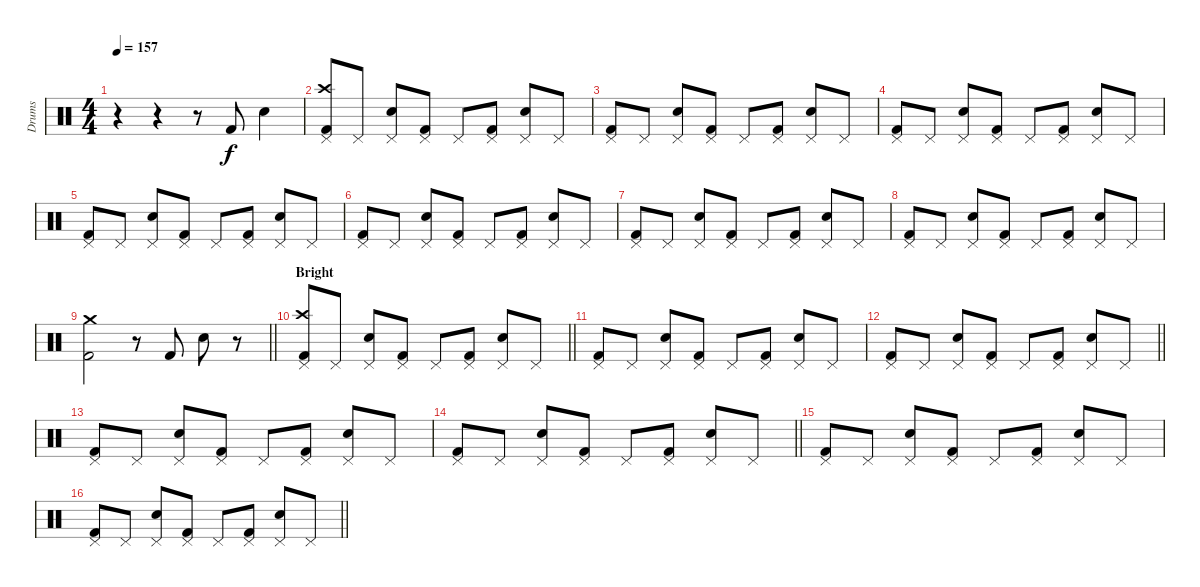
\track ("Drums" "Drums") {instrument percussion}
\staff {score}
\articulation defaults
\ts (4 4)
\tempo 157
\clef neutral
\ks c
r.4{dy f} r.4 r.8 "Kick (hit) 2".8 "Snare (hit) 2".4 |
("Crash high (hit)" "Pedal Hi-Hat (hit)" "Kick (hit) 2").8 "Pedal Hi-Hat (hit)".8 ("Pedal Hi-Hat (hit)" "Snare (hit) 2").8 ("Pedal Hi-Hat (hit)" "Kick (hit) 2").8 "Pedal Hi-Hat (hit)".8 ("Pedal Hi-Hat (hit)" "Kick (hit) 2").8 ("Pedal Hi-Hat (hit)" "Snare (hit) 2").8 "Pedal Hi-Hat (hit)".8 |
("Pedal Hi-Hat (hit)" "Kick (hit) 2").8 "Pedal Hi-Hat (hit)".8 ("Pedal Hi-Hat (hit)" "Snare (hit) 2").8 ("Pedal Hi-Hat (hit)" "Kick (hit) 2").8 "Pedal Hi-Hat (hit)".8 ("Pedal Hi-Hat (hit)" "Kick (hit) 2").8 ("Pedal Hi-Hat (hit)" "Snare (hit) 2").8 "Pedal Hi-Hat (hit)".8 |
("Pedal Hi-Hat (hit)" "Kick (hit) 2").8 "Pedal Hi-Hat (hit)".8 ("Pedal Hi-Hat (hit)" "Snare (hit) 2").8 ("Pedal Hi-Hat (hit)" "Kick (hit) 2").8 "Pedal Hi-Hat (hit)".8 ("Pedal Hi-Hat (hit)" "Kick (hit) 2").8 ("Pedal Hi-Hat (hit)" "Snare (hit) 2").8 "Pedal Hi-Hat (hit)".8 |
("Pedal Hi-Hat (hit)" "Kick (hit) 2").8 "Pedal Hi-Hat (hit)".8 ("Pedal Hi-Hat (hit)" "Snare (hit) 2").8 ("Pedal Hi-Hat (hit)" "Kick (hit) 2").8 "Pedal Hi-Hat (hit)".8 ("Pedal Hi-Hat (hit)" "Kick (hit) 2").8 ("Pedal Hi-Hat (hit)" "Snare (hit) 2").8 "Pedal Hi-Hat (hit)".8 |
("Pedal Hi-Hat (hit)" "Kick (hit) 2").8 "Pedal Hi-Hat (hit)".8 ("Pedal Hi-Hat (hit)" "Snare (hit) 2").8 ("Pedal Hi-Hat (hit)" "Kick (hit) 2").8 "Pedal Hi-Hat (hit)".8 ("Pedal Hi-Hat (hit)" "Kick (hit) 2").8 ("Pedal Hi-Hat (hit)" "Snare (hit) 2").8 "Pedal Hi-Hat (hit)".8 |
("Pedal Hi-Hat (hit)" "Kick (hit) 2").8 "Pedal Hi-Hat (hit)".8 ("Pedal Hi-Hat (hit)" "Snare (hit) 2").8 ("Pedal Hi-Hat (hit)" "Kick (hit) 2").8 "Pedal Hi-Hat (hit)".8 ("Pedal Hi-Hat (hit)" "Kick (hit) 2").8 ("Pedal Hi-Hat (hit)" "Snare (hit) 2").8 "Pedal Hi-Hat (hit)".8 |
("Pedal Hi-Hat (hit)" "Kick (hit) 2").8 "Pedal Hi-Hat (hit)".8 ("Pedal Hi-Hat (hit)" "Snare (hit) 2").8 ("Pedal Hi-Hat (hit)" "Kick (hit) 2").8 "Pedal Hi-Hat (hit)".8 ("Pedal Hi-Hat (hit)" "Kick (hit) 2").8 ("Pedal Hi-Hat (hit)" "Snare (hit) 2").8 "Pedal Hi-Hat (hit)".8 |
\barLineRight lightlight
("Crash medium (hit)" "Kick (hit) 2").2 r.8 "Kick (hit) 2".8 "Snare (hit) 2".8 r.8 |
\section ("" "Bright")
\barLineRight lightlight
("Crash high (hit)" "Pedal Hi-Hat (hit)" "Kick (hit) 2").8 "Pedal Hi-Hat (hit)".8 ("Pedal Hi-Hat (hit)" "Snare (hit) 2").8 ("Pedal Hi-Hat (hit)" "Kick (hit) 2").8 "Pedal Hi-Hat (hit)".8 ("Pedal Hi-Hat (hit)" "Kick (hit) 2").8 ("Pedal Hi-Hat (hit)" "Snare (hit) 2").8 "Pedal Hi-Hat (hit)".8 |
\section ("" "")
("Pedal Hi-Hat (hit)" "Kick (hit) 2").8 "Pedal Hi-Hat (hit)".8 ("Pedal Hi-Hat (hit)" "Snare (hit) 2").8 ("Pedal Hi-Hat (hit)" "Kick (hit) 2").8 "Pedal Hi-Hat (hit)".8 ("Pedal Hi-Hat (hit)" "Kick (hit) 2").8 ("Pedal Hi-Hat (hit)" "Snare (hit) 2").8 "Pedal Hi-Hat (hit)".8 |
\barLineRight lightlight
("Pedal Hi-Hat (hit)" "Kick (hit) 2").8 "Pedal Hi-Hat (hit)".8 ("Pedal Hi-Hat (hit)" "Snare (hit) 2").8 ("Pedal Hi-Hat (hit)" "Kick (hit) 2").8 "Pedal Hi-Hat (hit)".8 ("Pedal Hi-Hat (hit)" "Kick (hit) 2").8 ("Pedal Hi-Hat (hit)" "Snare (hit) 2").8 "Pedal Hi-Hat (hit)".8 |
("Pedal Hi-Hat (hit)" "Kick (hit) 2").8 "Pedal Hi-Hat (hit)".8 ("Pedal Hi-Hat (hit)" "Snare (hit) 2").8 ("Pedal Hi-Hat (hit)" "Kick (hit) 2").8 "Pedal Hi-Hat (hit)".8 ("Pedal Hi-Hat (hit)" "Kick (hit) 2").8 ("Pedal Hi-Hat (hit)" "Snare (hit) 2").8 "Pedal Hi-Hat (hit)".8 |
\barLineRight lightlight
("Pedal Hi-Hat (hit)" "Kick (hit) 2").8 "Pedal Hi-Hat (hit)".8 ("Pedal Hi-Hat (hit)" "Snare (hit) 2").8 ("Pedal Hi-Hat (hit)" "Kick (hit) 2").8 "Pedal Hi-Hat (hit)".8 ("Pedal Hi-Hat (hit)" "Kick (hit) 2").8 ("Pedal Hi-Hat (hit)" "Snare (hit) 2").8 "Pedal Hi-Hat (hit)".8 |
("Pedal Hi-Hat (hit)" "Kick (hit) 2").8 "Pedal Hi-Hat (hit)".8 ("Pedal Hi-Hat (hit)" "Snare (hit) 2").8 ("Pedal Hi-Hat (hit)" "Kick (hit) 2").8 "Pedal Hi-Hat (hit)".8 ("Pedal Hi-Hat (hit)" "Kick (hit) 2").8 ("Pedal Hi-Hat (hit)" "Snare (hit) 2").8 "Pedal Hi-Hat (hit)".8 |
\barLineRight lightlight
("Pedal Hi-Hat (hit)" "Kick (hit) 2").8 "Pedal Hi-Hat (hit)".8 ("Pedal Hi-Hat (hit)" "Snare (hit) 2").8 ("Pedal Hi-Hat (hit)" "Kick (hit) 2").8 "Pedal Hi-Hat (hit)".8 ("Pedal Hi-Hat (hit)" "Kick (hit) 2").8 ("Pedal Hi-Hat (hit)" "Snare (hit) 2").8 "Pedal Hi-Hat (hit)".8
